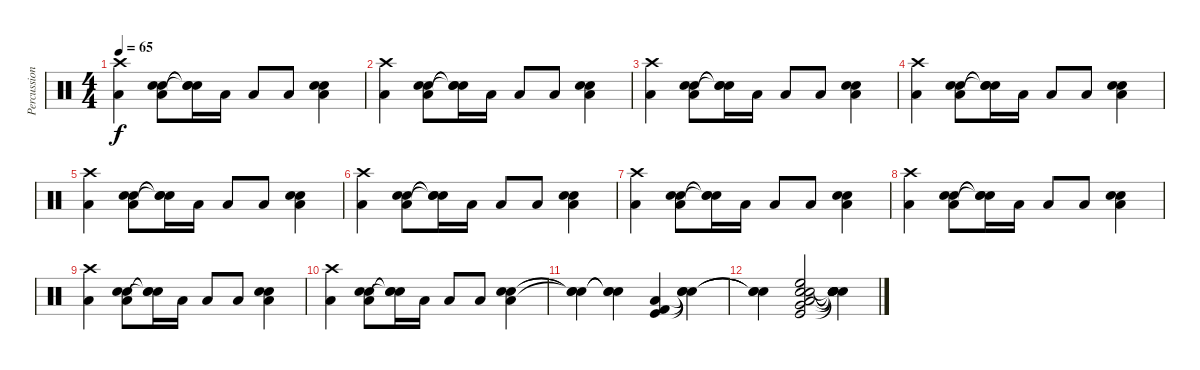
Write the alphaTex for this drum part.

\track ("Percussion" "Percussion") {instrument percussion}
\staff {score}
\articulation defaults
\ts (4 4)
\tempo 65
\clef neutral
\ks c
("Crash high (hit)" "Low Tom (hit)").4{dy f} ("Snare (hit) 2" "Electric Snare (hit)" "Low Tom (hit)").8 ("Snare (hit)"{t} "Snare (hit)"{t} "Snare (hit)"{t}).16 "Low Tom (hit)".16 "Low Tom (hit)".8 "Low Tom (hit)".8 ("Snare (hit) 2" "Electric Snare (hit)" "Low Tom (hit)").4 |
("Crash high (hit)" "Low Tom (hit)").4 ("Snare (hit) 2" "Electric Snare (hit)" "Low Tom (hit)").8 ("Snare (hit)"{t} "Snare (hit)"{t} "Snare (hit)"{t}).16 "Low Tom (hit)".16 "Low Tom (hit)".8 "Low Tom (hit)".8 ("Snare (hit) 2" "Electric Snare (hit)" "Low Tom (hit)").4 |
("Crash high (hit)" "Low Tom (hit)").4 ("Snare (hit) 2" "Electric Snare (hit)" "Low Tom (hit)").8 ("Snare (hit)"{t} "Snare (hit)"{t} "Snare (hit)"{t}).16 "Low Tom (hit)".16 "Low Tom (hit)".8 "Low Tom (hit)".8 ("Snare (hit) 2" "Electric Snare (hit)" "Low Tom (hit)").4 |
("Crash high (hit)" "Low Tom (hit)").4 ("Snare (hit) 2" "Electric Snare (hit)" "Low Tom (hit)").8 ("Snare (hit)"{t} "Snare (hit)"{t} "Snare (hit)"{t}).16 "Low Tom (hit)".16 "Low Tom (hit)".8 "Low Tom (hit)".8 ("Snare (hit) 2" "Electric Snare (hit)" "Low Tom (hit)").4 |
("Crash high (hit)" "Low Tom (hit)").4 ("Snare (hit) 2" "Electric Snare (hit)" "Low Tom (hit)").8 ("Snare (hit)"{t} "Snare (hit)"{t} "Snare (hit)"{t}).16 "Low Tom (hit)".16 "Low Tom (hit)".8 "Low Tom (hit)".8 ("Snare (hit) 2" "Electric Snare (hit)" "Low Tom (hit)").4 |
("Crash high (hit)" "Low Tom (hit)").4 ("Snare (hit) 2" "Electric Snare (hit)" "Low Tom (hit)").8 ("Snare (hit)"{t} "Snare (hit)"{t} "Snare (hit)"{t}).16 "Low Tom (hit)".16 "Low Tom (hit)".8 "Low Tom (hit)".8 ("Snare (hit) 2" "Electric Snare (hit)" "Low Tom (hit)").4 |
("Crash high (hit)" "Low Tom (hit)").4 ("Snare (hit) 2" "Electric Snare (hit)" "Low Tom (hit)").8 ("Snare (hit)"{t} "Snare (hit)"{t} "Snare (hit)"{t}).16 "Low Tom (hit)".16 "Low Tom (hit)".8 "Low Tom (hit)".8 ("Snare (hit) 2" "Electric Snare (hit)" "Low Tom (hit)").4 |
("Crash high (hit)" "Low Tom (hit)").4 ("Snare (hit) 2" "Electric Snare (hit)" "Low Tom (hit)").8 ("Snare (hit)"{t} "Snare (hit)"{t} "Snare (hit)"{t}).16 "Low Tom (hit)".16 "Low Tom (hit)".8 "Low Tom (hit)".8 ("Snare (hit) 2" "Electric Snare (hit)" "Low Tom (hit)").4 |
("Crash high (hit)" "Low Tom (hit)").4 ("Snare (hit) 2" "Electric Snare (hit)" "Low Tom (hit)").8 ("Snare (hit)"{t} "Snare (hit)"{t} "Snare (hit)"{t}).16 "Low Tom (hit)".16 "Low Tom (hit)".8 "Low Tom (hit)".8 ("Snare (hit) 2" "Electric Snare (hit)" "Low Tom (hit)").4 |
("Crash high (hit)" "Low Tom (hit)").4 ("Snare (hit) 2" "Electric Snare (hit)" "Low Tom (hit)").8 ("Snare (hit)"{t} "Snare (hit)"{t} "Snare (hit)"{t}).16 "Low Tom (hit)".16 "Low Tom (hit)".8 "Low Tom (hit)".8 ("Snare (hit) 2" "Electric Snare (hit)" "Low Tom (hit)").4 |
("Snare (hit)"{t} "Snare (hit)"{t} "Snare (hit)"{t}).4{volume 6} ("Snare (hit)"{t} "Snare (hit)"{t} "Snare (hit)"{t}).4 ("Low Floor Tom (hit)" "Kick (hit)" "Kick (hit) 2").4 ("Snare (hit)"{t} "Snare (hit)"{t} "Snare (hit)"{t}).4 |
("Snare (hit)"{t} "Snare (hit)"{t} "Snare (hit)"{t}).4 ("Electric Snare (hit)" "Kick (hit)" "High Floor Tom (hit)" "Hand Clap (hit)" "Low Tom (hit)" "Very Low Tom (hit)").2 ("Snare (hit)"{t} "Snare (hit)"{t} "Snare (hit)"{t} "Snare (hit)"{t} "Snare (hit)"{t} "Snare (hit)"{t}).4
